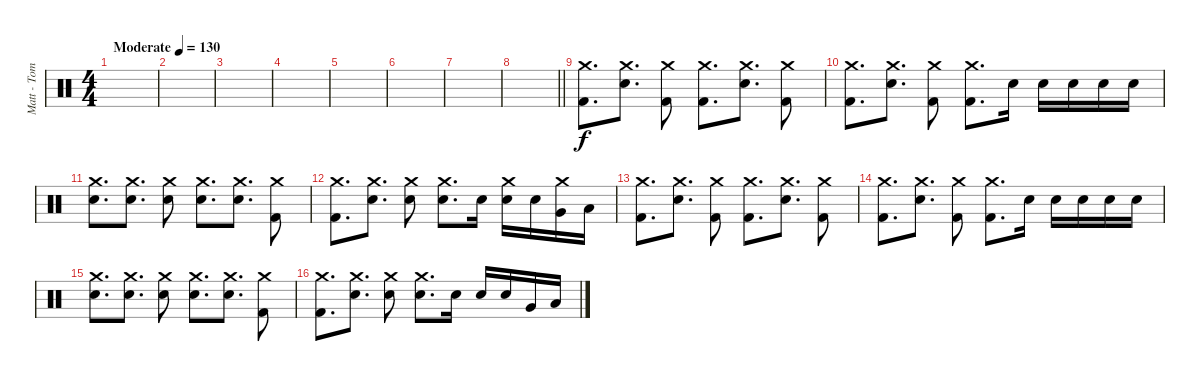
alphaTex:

\track ("Matt - Tom" "Matt - Tom") {instrument percussion}
\staff {score}
\articulation defaults
\ts (4 4)
\tempo (130 "Moderate")
\clef neutral
\ks c
|
|
|
|
|
|
|
\barLineRight lightlight
|
("Crash medium (hit)" "Kick (hit) 2").8{d} ("Crash medium (hit)" "Electric Snare (hit)").8{d} ("Crash medium (hit)" "Kick (hit) 2").8 ("Crash medium (hit)" "Kick (hit) 2").8{d} ("Crash medium (hit)" "Electric Snare (hit)").8{d} ("Crash medium (hit)" "Kick (hit) 2").8 |
("Crash medium (hit)" "Kick (hit) 2").8{d} ("Crash medium (hit)" "Electric Snare (hit)").8{d} ("Crash medium (hit)" "Kick (hit) 2").8 ("Crash medium (hit)" "Kick (hit) 2").8{d} "Electric Snare (hit)".16 "Electric Snare (hit)".16 "Electric Snare (hit)".16 "Electric Snare (hit)".16 "Electric Snare (hit)".16 |
("Crash medium (hit)" "Electric Snare (hit)").8{d} ("Crash medium (hit)" "Electric Snare (hit)").8{d} ("Crash medium (hit)" "Electric Snare (hit)").8 ("Crash medium (hit)" "Electric Snare (hit)").8{d} ("Crash medium (hit)" "Electric Snare (hit)").8{d} ("Crash medium (hit)" "Kick (hit) 2").8 |
("Crash medium (hit)" "Kick (hit) 2").8{d} ("Crash medium (hit)" "Electric Snare (hit)").8{d} ("Crash medium (hit)" "Electric Snare (hit)").8 ("Crash medium (hit)" "Electric Snare (hit)").8{d} "Electric Snare (hit)".16 ("Crash medium (hit)" "Electric Snare (hit)").16 "Electric Snare (hit)".16 ("Crash medium (hit)" "Very Low Tom (hit)").16 "Low Floor Tom (hit)".16 |
("Crash medium (hit)" "Kick (hit) 2").8{d} ("Crash medium (hit)" "Electric Snare (hit)").8{d} ("Crash medium (hit)" "Kick (hit) 2").8 ("Crash medium (hit)" "Kick (hit) 2").8{d} ("Crash medium (hit)" "Electric Snare (hit)").8{d} ("Crash medium (hit)" "Kick (hit) 2").8 |
("Crash medium (hit)" "Kick (hit) 2").8{d} ("Crash medium (hit)" "Electric Snare (hit)").8{d} ("Crash medium (hit)" "Kick (hit) 2").8 ("Crash medium (hit)" "Kick (hit) 2").8{d} "Electric Snare (hit)".16 "Electric Snare (hit)".16 "Electric Snare (hit)".16 "Electric Snare (hit)".16 "Electric Snare (hit)".16 |
("Crash medium (hit)" "Electric Snare (hit)").8{d} ("Crash medium (hit)" "Electric Snare (hit)").8{d} ("Crash medium (hit)" "Electric Snare (hit)").8 ("Crash medium (hit)" "Electric Snare (hit)").8{d} ("Crash medium (hit)" "Electric Snare (hit)").8{d} ("Crash medium (hit)" "Kick (hit) 2").8 |
("Crash medium (hit)" "Kick (hit) 2").8{d} ("Crash medium (hit)" "Electric Snare (hit)").8{d} ("Crash medium (hit)" "Electric Snare (hit)").8 ("Crash medium (hit)" "Electric Snare (hit)").8{d} "Electric Snare (hit)".16 "Electric Snare (hit)".16 "Electric Snare (hit)".16 "Very Low Tom (hit)".16 "Low Floor Tom (hit)".16
